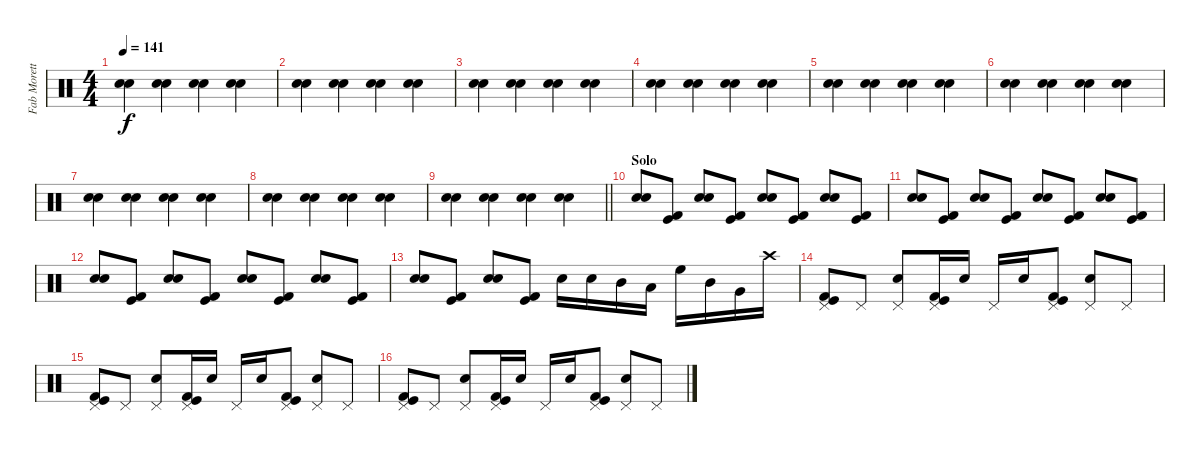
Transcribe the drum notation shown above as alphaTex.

\track ("Fab Moretti - Drums" "Fab Morett") {instrument percussion}
\staff {score}
\articulation defaults
\ts (4 4)
\tempo 141
\clef neutral
\ks c
("Snare (hit) 2" "Snare (hit) 2").4{dy f} ("Snare (hit) 2" "Snare (hit) 2").4 ("Snare (hit) 2" "Snare (hit) 2").4 ("Snare (hit) 2" "Snare (hit) 2").4 |
("Snare (hit) 2" "Snare (hit) 2").4 ("Snare (hit) 2" "Snare (hit) 2").4 ("Snare (hit) 2" "Snare (hit) 2").4 ("Snare (hit) 2" "Snare (hit) 2").4 |
("Snare (hit) 2" "Snare (hit) 2").4 ("Snare (hit) 2" "Snare (hit) 2").4 ("Snare (hit) 2" "Snare (hit) 2").4 ("Snare (hit) 2" "Snare (hit) 2").4 |
("Snare (hit) 2" "Snare (hit) 2").4 ("Snare (hit) 2" "Snare (hit) 2").4 ("Snare (hit) 2" "Snare (hit) 2").4 ("Snare (hit) 2" "Snare (hit) 2").4 |
("Snare (hit) 2" "Snare (hit) 2").4 ("Snare (hit) 2" "Snare (hit) 2").4 ("Snare (hit) 2" "Snare (hit) 2").4 ("Snare (hit) 2" "Snare (hit) 2").4 |
("Snare (hit) 2" "Snare (hit) 2").4 ("Snare (hit) 2" "Snare (hit) 2").4 ("Snare (hit) 2" "Snare (hit) 2").4 ("Snare (hit) 2" "Snare (hit) 2").4 |
("Snare (hit) 2" "Snare (hit) 2").4 ("Snare (hit) 2" "Snare (hit) 2").4 ("Snare (hit) 2" "Snare (hit) 2").4 ("Snare (hit) 2" "Snare (hit) 2").4 |
("Snare (hit) 2" "Snare (hit) 2").4 ("Snare (hit) 2" "Snare (hit) 2").4 ("Snare (hit) 2" "Snare (hit) 2").4 ("Snare (hit) 2" "Snare (hit) 2").4 |
\barLineRight lightlight
("Snare (hit) 2" "Snare (hit) 2").4 ("Snare (hit) 2" "Snare (hit) 2").4 ("Snare (hit) 2" "Snare (hit) 2").4 ("Snare (hit) 2" "Snare (hit) 2").4 |
\section ("" "Solo")
("Snare (hit) 2" "Snare (hit) 2").8 ("Kick (hit) 2" "Kick (hit)").8 ("Snare (hit) 2" "Snare (hit) 2").8 ("Kick (hit) 2" "Kick (hit)").8 ("Snare (hit) 2" "Snare (hit) 2").8 ("Kick (hit) 2" "Kick (hit)").8 ("Snare (hit) 2" "Snare (hit) 2").8 ("Kick (hit) 2" "Kick (hit)").8 |
("Snare (hit) 2" "Snare (hit) 2").8 ("Kick (hit) 2" "Kick (hit)").8 ("Snare (hit) 2" "Snare (hit) 2").8 ("Kick (hit) 2" "Kick (hit)").8 ("Snare (hit) 2" "Snare (hit) 2").8 ("Kick (hit) 2" "Kick (hit)").8 ("Snare (hit) 2" "Snare (hit) 2").8 ("Kick (hit) 2" "Kick (hit)").8 |
("Snare (hit) 2" "Snare (hit) 2").8 ("Kick (hit) 2" "Kick (hit)").8 ("Snare (hit) 2" "Snare (hit) 2").8 ("Kick (hit) 2" "Kick (hit)").8 ("Snare (hit) 2" "Snare (hit) 2").8 ("Kick (hit) 2" "Kick (hit)").8 ("Snare (hit) 2" "Snare (hit) 2").8 ("Kick (hit) 2" "Kick (hit)").8 |
("Snare (hit) 2" "Snare (hit) 2").8 ("Kick (hit) 2" "Kick (hit)").8 ("Snare (hit) 2" "Snare (hit) 2").8 ("Kick (hit) 2" "Kick (hit)").8 "Electric Snare (hit)".16 "Electric Snare (hit)".16 "Mid Tom (hit)".16 "Low Tom (hit)".16 "High Floor Tom (hit)".16 "Mid Tom (hit)".16 "Very Low Tom (hit)".16 "Crash high (hit)".16 |
("Pedal Hi-Hat (hit)" "Kick (hit) 2" "Kick (hit)").8 "Pedal Hi-Hat (hit)".8 ("Pedal Hi-Hat (hit)" "Snare (hit) 2").8 ("Pedal Hi-Hat (hit)" "Kick (hit) 2" "Kick (hit)").16 "Snare (hit) 2".16 "Pedal Hi-Hat (hit)".16 "Snare (hit) 2".16 ("Pedal Hi-Hat (hit)" "Kick (hit) 2" "Kick (hit)").8 ("Pedal Hi-Hat (hit)" "Snare (hit) 2").8 "Pedal Hi-Hat (hit)".8 |
("Pedal Hi-Hat (hit)" "Kick (hit) 2" "Kick (hit)").8 "Pedal Hi-Hat (hit)".8 ("Pedal Hi-Hat (hit)" "Snare (hit) 2").8 ("Pedal Hi-Hat (hit)" "Kick (hit) 2" "Kick (hit)").16 "Snare (hit) 2".16 "Pedal Hi-Hat (hit)".16 "Snare (hit) 2".16 ("Pedal Hi-Hat (hit)" "Kick (hit) 2" "Kick (hit)").8 ("Pedal Hi-Hat (hit)" "Snare (hit) 2").8 "Pedal Hi-Hat (hit)".8 |
("Pedal Hi-Hat (hit)" "Kick (hit) 2" "Kick (hit)").8 "Pedal Hi-Hat (hit)".8 ("Pedal Hi-Hat (hit)" "Snare (hit) 2").8 ("Pedal Hi-Hat (hit)" "Kick (hit) 2" "Kick (hit)").16 "Snare (hit) 2".16 "Pedal Hi-Hat (hit)".16 "Snare (hit) 2".16 ("Pedal Hi-Hat (hit)" "Kick (hit) 2" "Kick (hit)").8 ("Pedal Hi-Hat (hit)" "Snare (hit) 2").8 "Pedal Hi-Hat (hit)".8
